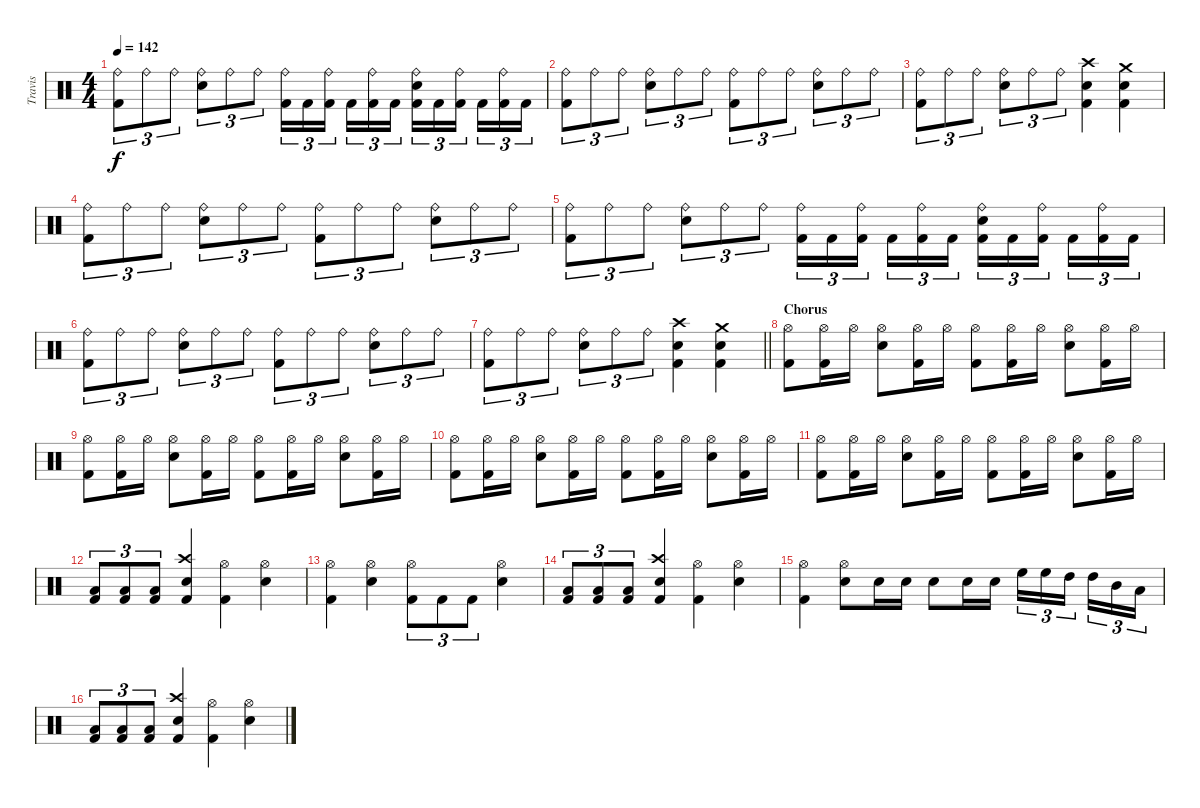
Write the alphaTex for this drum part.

\track ("Travis" "Travis") {instrument percussion}
\staff {score}
\articulation defaults
\ts (4 4)
\tempo 142
\clef neutral
\ks c
("Ride (bell)" "Kick (hit) 2").8{tu (3 2) dy f} "Ride (bell)".8{tu (3 2)} "Ride (bell)".8{tu (3 2)} ("Ride (bell)" "Electric Snare (hit)").8{tu (3 2)} "Ride (bell)".8{tu (3 2)} "Ride (bell)".8{tu (3 2)} ("Ride (bell)" "Kick (hit) 2").16{tu (3 2)} "Kick (hit) 2".16{tu (3 2)} ("Ride (bell)" "Kick (hit) 2").16{tu (3 2) beam splitsecondary} "Kick (hit) 2".16{tu (3 2)} ("Ride (bell)" "Kick (hit) 2").16{tu (3 2)} "Kick (hit) 2".16{tu (3 2)} ("Ride (bell)" "Electric Snare (hit)" "Kick (hit) 2").16{tu (3 2)} "Kick (hit) 2".16{tu (3 2)} ("Ride (bell)" "Kick (hit) 2").16{tu (3 2) beam splitsecondary} "Kick (hit) 2".16{tu (3 2)} ("Ride (bell)" "Kick (hit) 2").16{tu (3 2)} "Kick (hit) 2".16{tu (3 2)} |
("Ride (bell)" "Kick (hit) 2").8{tu (3 2)} "Ride (bell)".8{tu (3 2)} "Ride (bell)".8{tu (3 2)} ("Ride (bell)" "Electric Snare (hit)").8{tu (3 2)} "Ride (bell)".8{tu (3 2)} "Ride (bell)".8{tu (3 2)} ("Ride (bell)" "Kick (hit) 2").8{tu (3 2)} "Ride (bell)".8{tu (3 2)} "Ride (bell)".8{tu (3 2)} ("Ride (bell)" "Electric Snare (hit)").8{tu (3 2)} "Ride (bell)".8{tu (3 2)} "Ride (bell)".8{tu (3 2)} |
("Ride (bell)" "Kick (hit) 2").8{tu (3 2)} "Ride (bell)".8{tu (3 2)} "Ride (bell)".8{tu (3 2)} ("Ride (bell)" "Electric Snare (hit)").8{tu (3 2)} "Ride (bell)".8{tu (3 2)} "Ride (bell)".8{tu (3 2)} ("Crash high (hit)" "Electric Snare (hit)" "Kick (hit) 2").4 ("Crash medium (hit)" "Electric Snare (hit)" "Kick (hit) 2").4 |
("Ride (bell)" "Kick (hit) 2").8{tu (3 2)} "Ride (bell)".8{tu (3 2)} "Ride (bell)".8{tu (3 2)} ("Ride (bell)" "Electric Snare (hit)").8{tu (3 2)} "Ride (bell)".8{tu (3 2)} "Ride (bell)".8{tu (3 2)} ("Ride (bell)" "Kick (hit) 2").8{tu (3 2)} "Ride (bell)".8{tu (3 2)} "Ride (bell)".8{tu (3 2)} ("Ride (bell)" "Electric Snare (hit)").8{tu (3 2)} "Ride (bell)".8{tu (3 2)} "Ride (bell)".8{tu (3 2)} |
("Ride (bell)" "Kick (hit) 2").8{tu (3 2)} "Ride (bell)".8{tu (3 2)} "Ride (bell)".8{tu (3 2)} ("Ride (bell)" "Electric Snare (hit)").8{tu (3 2)} "Ride (bell)".8{tu (3 2)} "Ride (bell)".8{tu (3 2)} ("Ride (bell)" "Kick (hit) 2").16{tu (3 2)} "Kick (hit) 2".16{tu (3 2)} ("Ride (bell)" "Kick (hit) 2").16{tu (3 2) beam splitsecondary} "Kick (hit) 2".16{tu (3 2)} ("Ride (bell)" "Kick (hit) 2").16{tu (3 2)} "Kick (hit) 2".16{tu (3 2)} ("Ride (bell)" "Electric Snare (hit)" "Kick (hit) 2").16{tu (3 2)} "Kick (hit) 2".16{tu (3 2)} ("Ride (bell)" "Kick (hit) 2").16{tu (3 2) beam splitsecondary} "Kick (hit) 2".16{tu (3 2)} ("Ride (bell)" "Kick (hit) 2").16{tu (3 2)} "Kick (hit) 2".16{tu (3 2)} |
("Ride (bell)" "Kick (hit) 2").8{tu (3 2)} "Ride (bell)".8{tu (3 2)} "Ride (bell)".8{tu (3 2)} ("Ride (bell)" "Electric Snare (hit)").8{tu (3 2)} "Ride (bell)".8{tu (3 2)} "Ride (bell)".8{tu (3 2)} ("Ride (bell)" "Kick (hit) 2").8{tu (3 2)} "Ride (bell)".8{tu (3 2)} "Ride (bell)".8{tu (3 2)} ("Ride (bell)" "Electric Snare (hit)").8{tu (3 2)} "Ride (bell)".8{tu (3 2)} "Ride (bell)".8{tu (3 2)} |
\barLineRight lightlight
("Ride (bell)" "Kick (hit) 2").8{tu (3 2)} "Ride (bell)".8{tu (3 2)} "Ride (bell)".8{tu (3 2)} ("Ride (bell)" "Electric Snare (hit)").8{tu (3 2)} "Ride (bell)".8{tu (3 2)} "Ride (bell)".8{tu (3 2)} ("Crash high (hit)" "Electric Snare (hit)" "Kick (hit) 2").4 ("Crash medium (hit)" "Electric Snare (hit)" "Kick (hit) 2").4 |
\section ("" "Chorus")
("Hi-Hat (open)" "Kick (hit) 2").8 ("Hi-Hat (open)" "Kick (hit) 2").16 "Hi-Hat (open)".16 ("Hi-Hat (open)" "Snare (hit) 2").8 ("Hi-Hat (open)" "Kick (hit) 2").16 "Hi-Hat (open)".16 ("Hi-Hat (open)" "Kick (hit) 2").8 ("Hi-Hat (open)" "Kick (hit) 2").16 "Hi-Hat (open)".16 ("Hi-Hat (open)" "Snare (hit) 2").8 ("Hi-Hat (open)" "Kick (hit) 2").16 "Hi-Hat (open)".16 |
("Hi-Hat (open)" "Kick (hit) 2").8 ("Hi-Hat (open)" "Kick (hit) 2").16 "Hi-Hat (open)".16 ("Hi-Hat (open)" "Snare (hit) 2").8 ("Hi-Hat (open)" "Kick (hit) 2").16 "Hi-Hat (open)".16 ("Hi-Hat (open)" "Kick (hit) 2").8 ("Hi-Hat (open)" "Kick (hit) 2").16 "Hi-Hat (open)".16 ("Hi-Hat (open)" "Snare (hit) 2").8 ("Hi-Hat (open)" "Kick (hit) 2").16 "Hi-Hat (open)".16 |
("Hi-Hat (open)" "Kick (hit) 2").8 ("Hi-Hat (open)" "Kick (hit) 2").16 "Hi-Hat (open)".16 ("Hi-Hat (open)" "Snare (hit) 2").8 ("Hi-Hat (open)" "Kick (hit) 2").16 "Hi-Hat (open)".16 ("Hi-Hat (open)" "Kick (hit) 2").8 ("Hi-Hat (open)" "Kick (hit) 2").16 "Hi-Hat (open)".16 ("Hi-Hat (open)" "Snare (hit) 2").8 ("Hi-Hat (open)" "Kick (hit) 2").16 "Hi-Hat (open)".16 |
("Hi-Hat (open)" "Kick (hit) 2").8 ("Hi-Hat (open)" "Kick (hit) 2").16 "Hi-Hat (open)".16 ("Hi-Hat (open)" "Snare (hit) 2").8 ("Hi-Hat (open)" "Kick (hit) 2").16 "Hi-Hat (open)".16 ("Hi-Hat (open)" "Kick (hit) 2").8 ("Hi-Hat (open)" "Kick (hit) 2").16 "Hi-Hat (open)".16 ("Hi-Hat (open)" "Snare (hit) 2").8 ("Hi-Hat (open)" "Kick (hit) 2").16 "Hi-Hat (open)".16 |
("Low Tom (hit)" "Kick (hit) 2").8{tu (3 2)} ("Low Tom (hit)" "Kick (hit) 2").8{tu (3 2)} ("Low Tom (hit)" "Kick (hit) 2").8{tu (3 2)} ("Crash high (hit)" "Snare (hit) 2" "Kick (hit) 2").4 ("Hi-Hat (open)" "Kick (hit) 2").4 ("Hi-Hat (open)" "Snare (hit) 2").4 |
("Hi-Hat (open)" "Kick (hit) 2").4 ("Hi-Hat (open)" "Snare (hit) 2").4 ("Hi-Hat (open)" "Kick (hit) 2").8{tu (3 2)} "Kick (hit) 2".8{tu (3 2)} "Kick (hit) 2".8{tu (3 2)} ("Hi-Hat (open)" "Snare (hit) 2").4 |
("Low Tom (hit)" "Kick (hit) 2").8{tu (3 2)} ("Low Tom (hit)" "Kick (hit) 2").8{tu (3 2)} ("Low Tom (hit)" "Kick (hit) 2").8{tu (3 2)} ("Crash high (hit)" "Snare (hit) 2" "Kick (hit) 2").4 ("Hi-Hat (open)" "Kick (hit) 2").4 ("Hi-Hat (open)" "Snare (hit) 2").4 |
("Hi-Hat (open)" "Kick (hit) 2").4 ("Hi-Hat (open)" "Snare (hit) 2").8 "Snare (hit) 2".16 "Snare (hit) 2".16 "Snare (hit) 2".8 "Snare (hit) 2".16 "Snare (hit) 2".16 "High Floor Tom (hit)".16{tu (3 2)} "High Floor Tom (hit)".16{tu (3 2)} "High Tom (hit)".16{tu (3 2) beam splitsecondary} "High Tom (hit)".16{tu (3 2)} "Mid Tom (hit)".16{tu (3 2)} "Low Tom (hit)".16{tu (3 2)} |
("Low Tom (hit)" "Kick (hit) 2").8{tu (3 2)} ("Low Tom (hit)" "Kick (hit) 2").8{tu (3 2)} ("Low Tom (hit)" "Kick (hit) 2").8{tu (3 2)} ("Crash high (hit)" "Snare (hit) 2" "Kick (hit) 2").4 ("Hi-Hat (open)" "Kick (hit) 2").4 ("Hi-Hat (open)" "Snare (hit) 2").4
